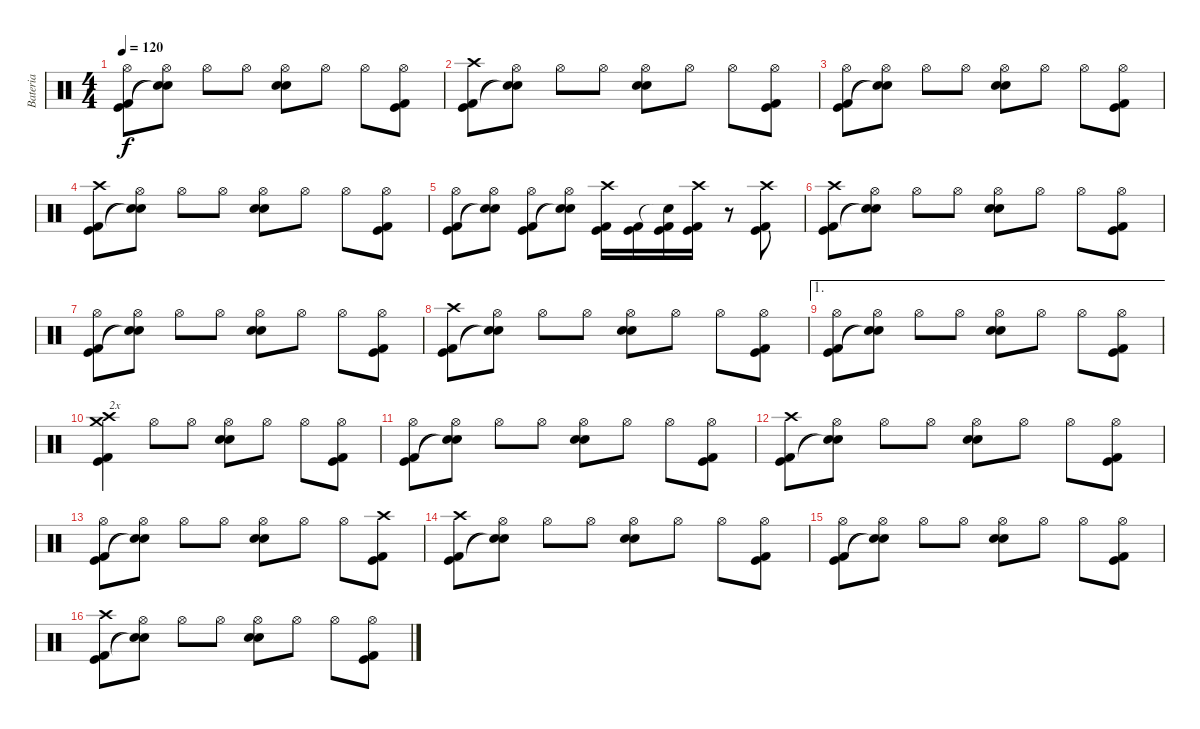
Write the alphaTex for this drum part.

\track ("Bateria" "Bateria") {instrument percussion}
\staff {score}
\articulation defaults
\ts (4 4)
\tempo 120
\clef neutral
\ks c
("Hi-Hat (open)" "Kick (hit)" "Kick (hit) 2").8{dy f} ("Hi-Hat (open)" "Snare (hit)"{t} "Snare (hit)"{t}).8 "Hi-Hat (open)".8 "Hi-Hat (open)".8 ("Hi-Hat (open)" "Electric Snare (hit)" "Snare (hit) 2").8 "Hi-Hat (open)".8 "Hi-Hat (open)".8 ("Hi-Hat (open)" "Kick (hit)" "Kick (hit) 2").8 |
("Crash high (hit)" "Kick (hit)" "Kick (hit) 2").8 ("Hi-Hat (open)" "Snare (hit)"{t} "Snare (hit)"{t}).8 "Hi-Hat (open)".8 "Hi-Hat (open)".8 ("Hi-Hat (open)" "Electric Snare (hit)" "Snare (hit) 2").8 "Hi-Hat (open)".8 "Hi-Hat (open)".8 ("Hi-Hat (open)" "Kick (hit)" "Kick (hit) 2").8 |
("Hi-Hat (open)" "Kick (hit)" "Kick (hit) 2").8 ("Hi-Hat (open)" "Snare (hit)"{t} "Snare (hit)"{t}).8 "Hi-Hat (open)".8 "Hi-Hat (open)".8 ("Hi-Hat (open)" "Electric Snare (hit)" "Snare (hit) 2").8 "Hi-Hat (open)".8 "Hi-Hat (open)".8 ("Hi-Hat (open)" "Kick (hit)" "Kick (hit) 2").8 |
("Crash high (hit)" "Kick (hit)" "Kick (hit) 2").8 ("Hi-Hat (open)" "Snare (hit)"{t} "Snare (hit)"{t}).8 "Hi-Hat (open)".8 "Hi-Hat (open)".8 ("Hi-Hat (open)" "Electric Snare (hit)" "Snare (hit) 2").8 "Hi-Hat (open)".8 "Hi-Hat (open)".8 ("Hi-Hat (open)" "Kick (hit)" "Kick (hit) 2").8 |
("Hi-Hat (open)" "Kick (hit) 2" "Kick (hit)").8 ("Hi-Hat (open)" "Snare (hit)"{t} "Snare (hit)"{t}).8 ("Hi-Hat (open)" "Kick (hit) 2" "Kick (hit)").8 ("Hi-Hat (open)" "Snare (hit)"{t} "Snare (hit)"{t}).8 ("Crash high (hit)" "Kick (hit) 2" "Kick (hit)").16 ("Kick (hit) 2" "Kick (hit)").16 ("Snare (hit)"{t} "Kick (hit) 2" "Kick (hit)").16 ("Crash high (hit)" "Kick (hit) 2" "Kick (hit)").16 r.8 ("Crash high (hit)" "Kick (hit)" "Kick (hit) 2").8 |
("Crash high (hit)" "Kick (hit)" "Kick (hit) 2").8 ("Hi-Hat (open)" "Snare (hit)"{t} "Snare (hit)"{t}).8 "Hi-Hat (open)".8 "Hi-Hat (open)".8 ("Hi-Hat (open)" "Electric Snare (hit)" "Snare (hit) 2").8 "Hi-Hat (open)".8 "Hi-Hat (open)".8 ("Hi-Hat (open)" "Kick (hit)" "Kick (hit) 2").8 |
("Hi-Hat (open)" "Kick (hit)" "Kick (hit) 2").8 ("Hi-Hat (open)" "Snare (hit)"{t} "Snare (hit)"{t}).8 "Hi-Hat (open)".8 "Hi-Hat (open)".8 ("Hi-Hat (open)" "Electric Snare (hit)" "Snare (hit) 2").8 "Hi-Hat (open)".8 "Hi-Hat (open)".8 ("Hi-Hat (open)" "Kick (hit)" "Kick (hit) 2").8 |
("Crash high (hit)" "Kick (hit)" "Kick (hit) 2").8 ("Hi-Hat (open)" "Snare (hit)"{t} "Snare (hit)"{t}).8 "Hi-Hat (open)".8 "Hi-Hat (open)".8 ("Hi-Hat (open)" "Electric Snare (hit)" "Snare (hit) 2").8 "Hi-Hat (open)".8 "Hi-Hat (open)".8 ("Hi-Hat (open)" "Kick (hit)" "Kick (hit) 2").8 |
\ae 1
("Hi-Hat (open)" "Kick (hit)" "Kick (hit) 2").8 ("Hi-Hat (open)" "Snare (hit)"{t} "Snare (hit)"{t}).8 "Hi-Hat (open)".8 "Hi-Hat (open)".8 ("Hi-Hat (open)" "Electric Snare (hit)" "Snare (hit) 2").8 "Hi-Hat (open)".8 "Hi-Hat (open)".8 ("Hi-Hat (open)" "Kick (hit)" "Kick (hit) 2").8 |
("Crash high (hit)" "Crash medium (hit)" "Kick (hit)" "Kick (hit) 2").4{txt "2x"} "Hi-Hat (open)".8 "Hi-Hat (open)".8 ("Hi-Hat (open)" "Electric Snare (hit)" "Snare (hit) 2").8 "Hi-Hat (open)".8 "Hi-Hat (open)".8 ("Hi-Hat (open)" "Kick (hit)" "Kick (hit) 2").8 |
("Hi-Hat (open)" "Kick (hit)" "Kick (hit) 2").8 ("Hi-Hat (open)" "Snare (hit)"{t} "Snare (hit)"{t}).8 "Hi-Hat (open)".8 "Hi-Hat (open)".8 ("Hi-Hat (open)" "Electric Snare (hit)" "Snare (hit) 2").8 "Hi-Hat (open)".8 "Hi-Hat (open)".8 ("Hi-Hat (open)" "Kick (hit)" "Kick (hit) 2").8 |
("Crash high (hit)" "Kick (hit)" "Kick (hit) 2").8 ("Hi-Hat (open)" "Snare (hit)"{t} "Snare (hit)"{t}).8 "Hi-Hat (open)".8 "Hi-Hat (open)".8 ("Hi-Hat (open)" "Electric Snare (hit)" "Snare (hit) 2").8 "Hi-Hat (open)".8 "Hi-Hat (open)".8 ("Hi-Hat (open)" "Kick (hit)" "Kick (hit) 2").8 |
("Hi-Hat (open)" "Kick (hit)" "Kick (hit) 2").8 ("Hi-Hat (open)" "Snare (hit)"{t} "Snare (hit)"{t}).8 "Hi-Hat (open)".8 "Hi-Hat (open)".8 ("Hi-Hat (open)" "Electric Snare (hit)" "Snare (hit) 2").8 "Hi-Hat (open)".8 "Hi-Hat (open)".8 ("Crash high (hit)" "Kick (hit)" "Kick (hit) 2").8 |
("Crash high (hit)" "Kick (hit)" "Kick (hit) 2").8 ("Hi-Hat (open)" "Snare (hit)"{t} "Snare (hit)"{t}).8 "Hi-Hat (open)".8 "Hi-Hat (open)".8 ("Hi-Hat (open)" "Electric Snare (hit)" "Snare (hit) 2").8 "Hi-Hat (open)".8 "Hi-Hat (open)".8 ("Hi-Hat (open)" "Kick (hit)" "Kick (hit) 2").8 |
("Hi-Hat (open)" "Kick (hit)" "Kick (hit) 2").8 ("Hi-Hat (open)" "Snare (hit)"{t} "Snare (hit)"{t}).8 "Hi-Hat (open)".8 "Hi-Hat (open)".8 ("Hi-Hat (open)" "Electric Snare (hit)" "Snare (hit) 2").8 "Hi-Hat (open)".8 "Hi-Hat (open)".8 ("Hi-Hat (open)" "Kick (hit)" "Kick (hit) 2").8 |
("Crash high (hit)" "Kick (hit)" "Kick (hit) 2").8 ("Hi-Hat (open)" "Snare (hit)"{t} "Snare (hit)"{t}).8 "Hi-Hat (open)".8 "Hi-Hat (open)".8 ("Hi-Hat (open)" "Electric Snare (hit)" "Snare (hit) 2").8 "Hi-Hat (open)".8 "Hi-Hat (open)".8 ("Hi-Hat (open)" "Kick (hit)" "Kick (hit) 2").8
